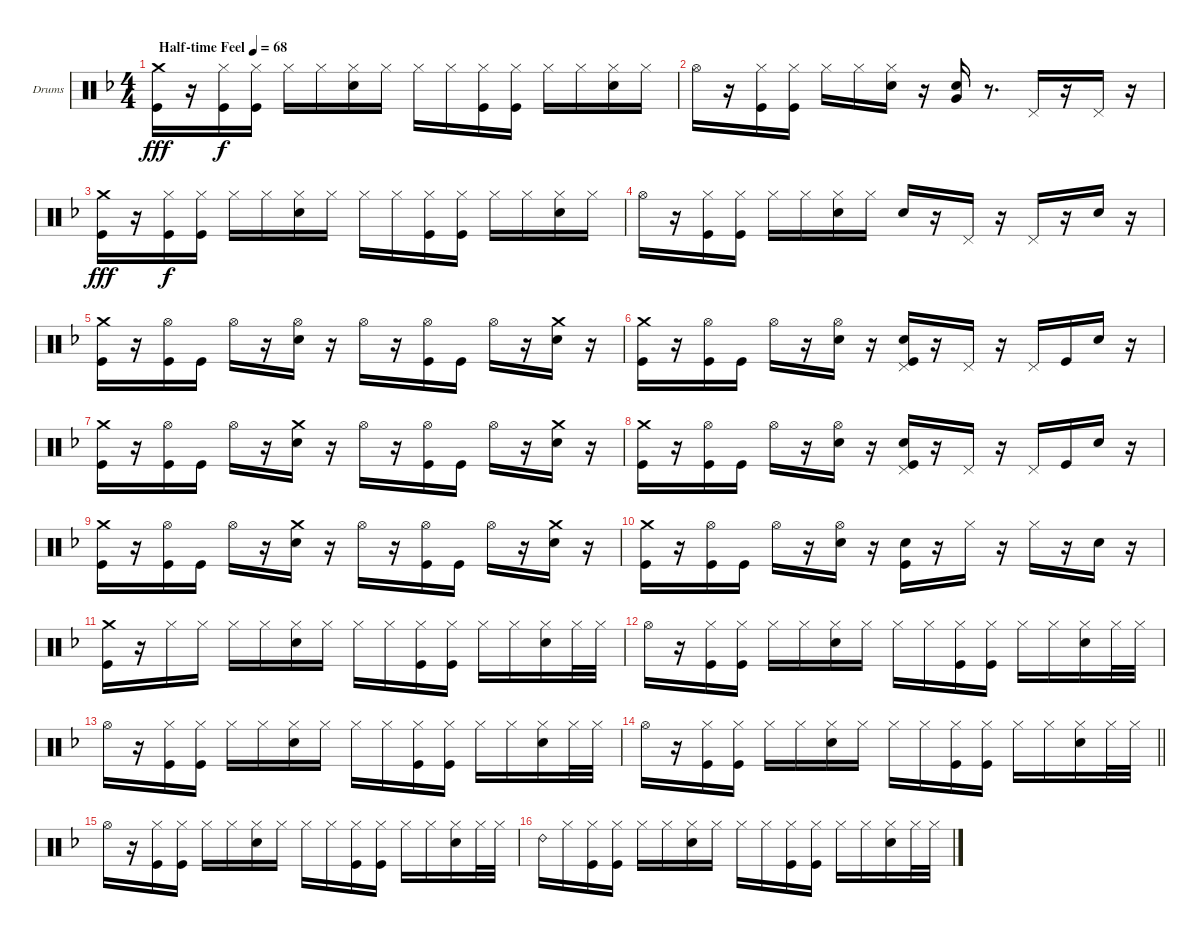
\defaultSystemsLayout 4
\bracketExtendMode groupsimilarinstruments
\firstSystemTrackNameOrientation horizontal
\otherSystemsTrackNameOrientation horizontal
\track ("Drumkit" "Drums") {instrument percussion}
\staff {score}
\articulation defaults
\ts (4 4)
\tempo (68 "Half-time Feel")
\clef neutral
\ks f
("Crash medium (hit)" "Kick (hit)").16{dy fff} r.16 ("Hi-Hat (closed)" "Kick (hit)").16{dy f} ("Hi-Hat (closed)" "Kick (hit)").16 "Hi-Hat (closed)".16 "Hi-Hat (closed)".16 ("Hi-Hat (closed)" "Snare (hit) 2").16 "Hi-Hat (closed)".16 "Hi-Hat (closed)".16 "Hi-Hat (closed)".16 ("Hi-Hat (closed)" "Kick (hit)").16 ("Hi-Hat (closed)" "Kick (hit)").16 "Hi-Hat (closed)".16 "Hi-Hat (closed)".16 ("Hi-Hat (closed)" "Snare (hit) 2").16 "Hi-Hat (closed)".16 |
"Hi-Hat (open)".16 r.16 ("Hi-Hat (closed)" "Kick (hit)").16 ("Hi-Hat (closed)" "Kick (hit)").16 "Hi-Hat (closed)".16 "Hi-Hat (closed)".16 ("Hi-Hat (closed)" "Snare (hit) 2").16 r.16 ("Snare (hit) 2" "Very Low Tom (hit)").16 r.8{d} "Pedal Hi-Hat (hit)".16 r.16 "Pedal Hi-Hat (hit)".16 r.16 |
("Crash medium (hit)" "Kick (hit)").16{dy fff} r.16 ("Hi-Hat (closed)" "Kick (hit)").16{dy f} ("Hi-Hat (closed)" "Kick (hit)").16 "Hi-Hat (closed)".16 "Hi-Hat (closed)".16 ("Hi-Hat (closed)" "Snare (hit) 2").16 "Hi-Hat (closed)".16 "Hi-Hat (closed)".16 "Hi-Hat (closed)".16 ("Hi-Hat (closed)" "Kick (hit)").16 ("Hi-Hat (closed)" "Kick (hit)").16 "Hi-Hat (closed)".16 "Hi-Hat (closed)".16 ("Hi-Hat (closed)" "Snare (hit) 2").16 "Hi-Hat (closed)".16 |
"Hi-Hat (open)".16 r.16 ("Hi-Hat (closed)" "Kick (hit)").16 ("Hi-Hat (closed)" "Kick (hit)").16 "Hi-Hat (closed)".16 "Hi-Hat (closed)".16 ("Hi-Hat (closed)" "Snare (hit) 2").16 "Hi-Hat (closed)".16 "Snare (hit) 2".16 r.16 "Pedal Hi-Hat (hit)".16 r.16 "Pedal Hi-Hat (hit)".16 r.16 "Snare (hit) 2".16 r.16 |
("Crash medium (hit)" "Kick (hit)").16 r.16 ("Hi-Hat (open)" "Kick (hit)").16 "Kick (hit)".16 "Hi-Hat (open)".16 r.16 ("Hi-Hat (open)" "Snare (hit) 2").16 r.16 "Hi-Hat (open)".16 r.16 ("Hi-Hat (open)" "Kick (hit)").16 "Kick (hit)".16 "Hi-Hat (open)".16 r.16 ("Crash medium (hit)" "Snare (hit) 2").16 r.16 |
("Crash medium (hit)" "Kick (hit)").16 r.16 ("Hi-Hat (open)" "Kick (hit)").16 "Kick (hit)".16 "Hi-Hat (open)".16 r.16 ("Hi-Hat (open)" "Snare (hit) 2").16 r.16 ("Pedal Hi-Hat (hit)" "Snare (hit) 2" "Kick (hit)").16 r.16 "Pedal Hi-Hat (hit)".16 r.16 "Pedal Hi-Hat (hit)".16 "Kick (hit)".16 "Snare (hit) 2".16 r.16 |
("Crash medium (hit)" "Kick (hit)").16 r.16 ("Hi-Hat (open)" "Kick (hit)").16 "Kick (hit)".16 "Hi-Hat (open)".16 r.16 ("Crash medium (hit)" "Snare (hit) 2").16 r.16 "Hi-Hat (open)".16 r.16 ("Hi-Hat (open)" "Kick (hit)").16 "Kick (hit)".16 "Hi-Hat (open)".16 r.16 ("Crash medium (hit)" "Snare (hit) 2").16 r.16 |
("Crash medium (hit)" "Kick (hit)").16 r.16 ("Hi-Hat (open)" "Kick (hit)").16 "Kick (hit)".16 "Hi-Hat (open)".16 r.16 ("Hi-Hat (open)" "Snare (hit) 2").16 r.16 ("Pedal Hi-Hat (hit)" "Snare (hit) 2" "Kick (hit)").16 r.16 "Pedal Hi-Hat (hit)".16 r.16 "Pedal Hi-Hat (hit)".16 "Kick (hit)".16 "Snare (hit) 2".16 r.16 |
("Crash medium (hit)" "Kick (hit)").16 r.16 ("Hi-Hat (open)" "Kick (hit)").16 "Kick (hit)".16 "Hi-Hat (open)".16 r.16 ("Crash medium (hit)" "Snare (hit) 2").16 r.16 "Hi-Hat (open)".16 r.16 ("Hi-Hat (open)" "Kick (hit)").16 "Kick (hit)".16 "Hi-Hat (open)".16 r.16 ("Crash medium (hit)" "Snare (hit) 2").16 r.16 |
("Crash medium (hit)" "Kick (hit)").16 r.16 ("Hi-Hat (open)" "Kick (hit)").16 "Kick (hit)".16 "Hi-Hat (open)".16 r.16 ("Hi-Hat (open)" "Snare (hit) 2").16 r.16 ("Snare (hit) 2" "Kick (hit)").16 r.16 "Hi-Hat (closed)".16 r.16 "Hi-Hat (closed)".16 r.16 "Snare (hit) 2".16 r.16 |
("Crash medium (hit)" "Kick (hit)").16 r.16 "Hi-Hat (closed)".16 "Hi-Hat (closed)".16 "Hi-Hat (closed)".16 "Hi-Hat (closed)".16 ("Hi-Hat (closed)" "Snare (hit) 2").16 "Hi-Hat (closed)".16 "Hi-Hat (closed)".16 "Hi-Hat (closed)".16 ("Hi-Hat (closed)" "Kick (hit)").16 ("Hi-Hat (closed)" "Kick (hit)").16 "Hi-Hat (closed)".16 "Hi-Hat (closed)".16 ("Hi-Hat (closed)" "Snare (hit) 2").16 "Hi-Hat (closed)".32 "Hi-Hat (closed)".32 |
"Hi-Hat (open)".16 r.16 ("Hi-Hat (closed)" "Kick (hit)").16 ("Hi-Hat (closed)" "Kick (hit)").16 "Hi-Hat (closed)".16 "Hi-Hat (closed)".16 ("Hi-Hat (closed)" "Snare (hit) 2").16 "Hi-Hat (closed)".16 "Hi-Hat (closed)".16 "Hi-Hat (closed)".16 ("Hi-Hat (closed)" "Kick (hit)").16 ("Hi-Hat (closed)" "Kick (hit)").16 "Hi-Hat (closed)".16 "Hi-Hat (closed)".16 ("Hi-Hat (closed)" "Snare (hit) 2").16 "Hi-Hat (closed)".32 "Hi-Hat (closed)".32 |
"Hi-Hat (open)".16 r.16 ("Hi-Hat (closed)" "Kick (hit)").16 ("Hi-Hat (closed)" "Kick (hit)").16 "Hi-Hat (closed)".16 "Hi-Hat (closed)".16 ("Hi-Hat (closed)" "Snare (hit) 2").16 "Hi-Hat (closed)".16 "Hi-Hat (closed)".16 "Hi-Hat (closed)".16 ("Hi-Hat (closed)" "Kick (hit)").16 ("Hi-Hat (closed)" "Kick (hit)").16 "Hi-Hat (closed)".16 "Hi-Hat (closed)".16 ("Hi-Hat (closed)" "Snare (hit) 2").16 "Hi-Hat (closed)".32 "Hi-Hat (closed)".32 |
\barLineRight lightlight "Hi-Hat (open)".16
r.16 ("Hi-Hat (closed)" "Kick (hit)").16 ("Hi-Hat (closed)" "Kick (hit)").16 "Hi-Hat (closed)".16 "Hi-Hat (closed)".16 ("Hi-Hat (closed)" "Snare (hit) 2").16 "Hi-Hat (closed)".16 "Hi-Hat (closed)".16 "Hi-Hat (closed)".16 ("Hi-Hat (closed)" "Kick (hit)").16 ("Hi-Hat (closed)" "Kick (hit)").16 "Hi-Hat (closed)".16 "Hi-Hat (closed)".16 ("Hi-Hat (closed)" "Snare (hit) 2").16 "Hi-Hat (closed)".32 "Hi-Hat (closed)".32 |
"Hi-Hat (open)".16 r.16 ("Hi-Hat (closed)" "Kick (hit)").16 ("Hi-Hat (closed)" "Kick (hit)").16 "Hi-Hat (closed)".16 "Hi-Hat (closed)".16 ("Hi-Hat (closed)" "Snare (hit) 2").16 "Hi-Hat (closed)".16 "Hi-Hat (closed)".16 "Hi-Hat (closed)".16 ("Hi-Hat (closed)" "Kick (hit)").16 ("Hi-Hat (closed)" "Kick (hit)").16 "Hi-Hat (closed)".16 "Hi-Hat (closed)".16 ("Hi-Hat (closed)" "Snare (hit) 2").16 "Hi-Hat (closed)".32 "Hi-Hat (closed)".32 |
"Ride (bell) 2".16 "Hi-Hat (closed)".16 ("Hi-Hat (closed)" "Kick (hit)").16 ("Hi-Hat (closed)" "Kick (hit)").16 "Hi-Hat (closed)".16 "Hi-Hat (closed)".16 ("Hi-Hat (closed)" "Snare (hit) 2").16 "Hi-Hat (closed)".16 "Hi-Hat (closed)".16 "Hi-Hat (closed)".16 ("Hi-Hat (closed)" "Kick (hit)").16 ("Hi-Hat (closed)" "Kick (hit)").16 "Hi-Hat (closed)".16 "Hi-Hat (closed)".16 ("Hi-Hat (closed)" "Snare (hit) 2").16 "Hi-Hat (closed)".32 "Hi-Hat (closed)".32
